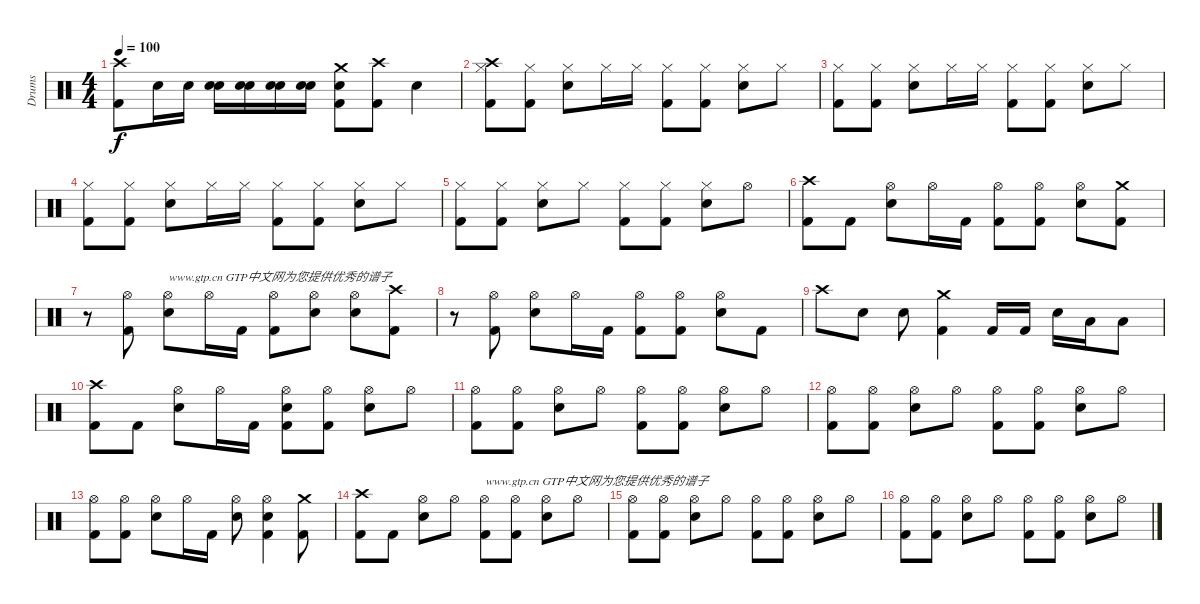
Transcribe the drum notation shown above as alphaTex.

\track ("Drums" "Drums") {instrument percussion}
\staff {score}
\articulation defaults
\ts (4 4)
\tempo 100
\clef neutral
\ks c
("Kick (hit) 2" "Crash high (hit)").8{dy f} "Snare (hit) 2".16 "Snare (hit) 2".16 ("Snare (hit)" "Snare (hit) 2").16 ("Snare (hit)" "Snare (hit) 2").16 ("Snare (hit)" "Snare (hit) 2").16 ("Snare (hit)" "Snare (hit) 2").16 ("Snare (hit)" "Kick (hit) 2" "Crash medium (hit)").8 ("Kick (hit) 2" "Crash high (hit)").8 "Snare (hit) 2".4 |
("Kick (hit) 2" "Hi-Hat (closed)" "Crash high (hit)").8 ("Kick (hit) 2" "Hi-Hat (closed)").8 ("Hi-Hat (closed)" "Snare (hit) 2").8 "Hi-Hat (closed)".16 "Hi-Hat (closed)".16 ("Kick (hit) 2" "Hi-Hat (closed)").8 ("Kick (hit) 2" "Hi-Hat (closed)").8 ("Hi-Hat (closed)" "Snare (hit) 2").8 "Hi-Hat (closed)".8 |
("Kick (hit) 2" "Hi-Hat (closed)").8 ("Kick (hit) 2" "Hi-Hat (closed)").8 ("Hi-Hat (closed)" "Snare (hit) 2").8 "Hi-Hat (closed)".16 "Hi-Hat (closed)".16 ("Kick (hit) 2" "Hi-Hat (closed)").8 ("Kick (hit) 2" "Hi-Hat (closed)").8 ("Hi-Hat (closed)" "Snare (hit) 2").8 "Hi-Hat (closed)".8 |
("Kick (hit) 2" "Hi-Hat (closed)").8 ("Kick (hit) 2" "Hi-Hat (closed)").8 ("Hi-Hat (closed)" "Snare (hit) 2").8 "Hi-Hat (closed)".16 "Hi-Hat (closed)".16 ("Kick (hit) 2" "Hi-Hat (closed)").8 ("Kick (hit) 2" "Hi-Hat (closed)").8 ("Hi-Hat (closed)" "Snare (hit) 2").8 "Hi-Hat (closed)".8 |
("Kick (hit) 2" "Hi-Hat (closed)").8 ("Kick (hit) 2" "Hi-Hat (closed)").8 ("Hi-Hat (closed)" "Snare (hit) 2").8 "Hi-Hat (closed)".8 ("Kick (hit) 2" "Hi-Hat (closed)").8 ("Kick (hit) 2" "Hi-Hat (closed)").8 ("Hi-Hat (closed)" "Snare (hit) 2").8 "Hi-Hat (open)".8 |
("Kick (hit) 2" "Crash high (hit)").8 "Kick (hit) 2".8 ("Hi-Hat (open)" "Snare (hit) 2").8 "Hi-Hat (open)".16 "Kick (hit) 2".16 ("Kick (hit) 2" "Hi-Hat (open)").8 ("Kick (hit) 2" "Hi-Hat (open)").8 ("Hi-Hat (open)" "Snare (hit) 2").8 ("Kick (hit) 2" "Crash medium (hit)").8 |
r.8 ("Kick (hit) 2" "Hi-Hat (open)").8 ("Hi-Hat (open)" "Snare (hit) 2").8{txt "www.gtp.cn GTP中文网为您提供优秀的谱子"} "Hi-Hat (open)".16 "Kick (hit) 2".16 ("Kick (hit) 2" "Hi-Hat (open)").8 ("Hi-Hat (open)" "Snare (hit) 2").8 ("Hi-Hat (open)" "Snare (hit) 2").8 ("Kick (hit) 2" "Crash high (hit)").8 |
r.8 ("Kick (hit) 2" "Hi-Hat (open)").8 ("Hi-Hat (open)" "Snare (hit) 2").8 "Hi-Hat (open)".16 "Kick (hit) 2".16 ("Kick (hit) 2" "Hi-Hat (open)").8 ("Kick (hit) 2" "Hi-Hat (open)").8 ("Hi-Hat (open)" "Snare (hit) 2").8 "Kick (hit) 2".8 |
"Crash high (hit)".8 "Snare (hit) 2".8 "Snare (hit) 2".8 ("Kick (hit) 2" "Crash medium (hit)").4 "Kick (hit) 2".16 "Kick (hit) 2".16 "Snare (hit) 2".16 "Low Tom (hit)".16 "Low Floor Tom (hit)".8 |
("Kick (hit) 2" "Crash high (hit)").8 "Kick (hit) 2".8 ("Hi-Hat (open)" "Snare (hit) 2").8 "Hi-Hat (open)".16 "Kick (hit) 2".16 ("Snare (hit)" "Kick (hit) 2" "Hi-Hat (open)").8 ("Kick (hit) 2" "Hi-Hat (open)").8 ("Hi-Hat (open)" "Snare (hit) 2").8 "Hi-Hat (open)".8 |
("Kick (hit) 2" "Hi-Hat (open)").8 ("Kick (hit) 2" "Hi-Hat (open)").8 ("Hi-Hat (open)" "Snare (hit) 2").8 "Hi-Hat (open)".8 ("Kick (hit) 2" "Hi-Hat (open)").8 ("Kick (hit) 2" "Hi-Hat (open)").8 ("Hi-Hat (open)" "Snare (hit) 2").8 "Hi-Hat (open)".8 |
("Kick (hit) 2" "Hi-Hat (open)").8 ("Kick (hit) 2" "Hi-Hat (open)").8 ("Hi-Hat (open)" "Snare (hit) 2").8 "Hi-Hat (open)".8 ("Kick (hit) 2" "Hi-Hat (open)").8 ("Kick (hit) 2" "Hi-Hat (open)").8 ("Hi-Hat (open)" "Snare (hit) 2").8 "Hi-Hat (open)".8 |
("Kick (hit) 2" "Hi-Hat (open)").8 ("Kick (hit) 2" "Hi-Hat (open)").8 ("Hi-Hat (open)" "Snare (hit) 2").8 "Hi-Hat (open)".16 "Kick (hit) 2".16 ("Hi-Hat (open)" "Snare (hit) 2").8 ("Kick (hit) 2" "Hi-Hat (open)" "Snare (hit) 2").4 ("Kick (hit) 2" "Crash medium (hit)").8 |
("Kick (hit) 2" "Crash high (hit)").8 "Kick (hit) 2".8 ("Hi-Hat (open)" "Snare (hit) 2").8 "Hi-Hat (open)".8 ("Kick (hit) 2" "Hi-Hat (open)").8{txt "www.gtp.cn GTP中文网为您提供优秀的谱子"} ("Kick (hit) 2" "Hi-Hat (open)").8 ("Hi-Hat (open)" "Snare (hit) 2").8 "Hi-Hat (open)".8 |
("Kick (hit) 2" "Hi-Hat (open)").8 ("Kick (hit) 2" "Hi-Hat (open)").8 ("Hi-Hat (open)" "Snare (hit) 2").8 "Hi-Hat (open)".8 ("Kick (hit) 2" "Hi-Hat (open)").8 ("Kick (hit) 2" "Hi-Hat (open)").8 ("Hi-Hat (open)" "Snare (hit) 2").8 "Hi-Hat (open)".8 |
("Kick (hit) 2" "Hi-Hat (open)").8 ("Kick (hit) 2" "Hi-Hat (open)").8 ("Hi-Hat (open)" "Snare (hit) 2").8 "Hi-Hat (open)".8 ("Kick (hit) 2" "Hi-Hat (open)").8 ("Kick (hit) 2" "Hi-Hat (open)").8 ("Hi-Hat (open)" "Snare (hit) 2").8 "Hi-Hat (open)".8
